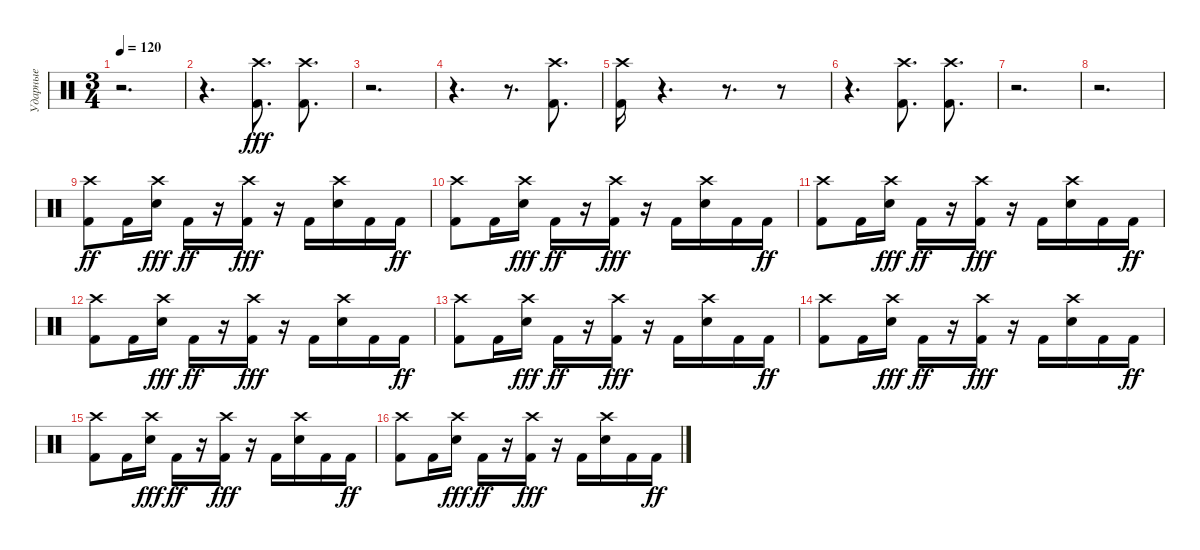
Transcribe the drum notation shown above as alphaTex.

\track ("Ударные" "Ударные") {instrument percussion}
\staff {score}
\articulation defaults
\ts (3 4)
\tempo 120
\clef neutral
\ks c
r.2{d dy fff} |
r.4{d} ("Crash high (hit)" "Kick (hit) 2").8{d} ("Crash high (hit)" "Kick (hit) 2").8{d} |
r.2{d} |
r.4{d} r.8{d} ("Crash high (hit)" "Kick (hit) 2").8{d} |
("Crash high (hit)" "Kick (hit) 2").16 r.4{d} r.8{d} r.8 |
r.4{d} ("Crash high (hit)" "Kick (hit) 2").8{d} ("Crash high (hit)" "Kick (hit) 2").8{d} |
r.2{d} |
r.2{d} |
("Crash high (hit)" "Kick (hit) 2").8{dy ff volume 16 balance 8} "Kick (hit) 2".16 ("Crash high (hit)" "Electric Snare (hit)").16{dy fff} "Kick (hit) 2".16{dy ff} r.16 ("Crash high (hit)" "Kick (hit) 2").16{dy fff} r.16 "Kick (hit) 2".16 ("Crash high (hit)" "Electric Snare (hit)").16 "Kick (hit) 2".16 "Kick (hit) 2".16{dy ff} |
("Crash high (hit)" "Kick (hit) 2").8 "Kick (hit) 2".16 ("Crash high (hit)" "Electric Snare (hit)").16{dy fff} "Kick (hit) 2".16{dy ff} r.16 ("Crash high (hit)" "Kick (hit) 2").16{dy fff} r.16 "Kick (hit) 2".16 ("Crash high (hit)" "Electric Snare (hit)").16 "Kick (hit) 2".16 "Kick (hit) 2".16{dy ff} |
("Crash high (hit)" "Kick (hit) 2").8 "Kick (hit) 2".16 ("Crash high (hit)" "Electric Snare (hit)").16{dy fff} "Kick (hit) 2".16{dy ff} r.16 ("Crash high (hit)" "Kick (hit) 2").16{dy fff} r.16 "Kick (hit) 2".16 ("Crash high (hit)" "Electric Snare (hit)").16 "Kick (hit) 2".16 "Kick (hit) 2".16{dy ff} |
("Crash high (hit)" "Kick (hit) 2").8 "Kick (hit) 2".16 ("Crash high (hit)" "Electric Snare (hit)").16{dy fff} "Kick (hit) 2".16{dy ff} r.16 ("Crash high (hit)" "Kick (hit) 2").16{dy fff} r.16 "Kick (hit) 2".16 ("Crash high (hit)" "Electric Snare (hit)").16 "Kick (hit) 2".16 "Kick (hit) 2".16{dy ff} |
("Crash high (hit)" "Kick (hit) 2").8 "Kick (hit) 2".16 ("Crash high (hit)" "Electric Snare (hit)").16{dy fff} "Kick (hit) 2".16{dy ff} r.16 ("Crash high (hit)" "Kick (hit) 2").16{dy fff} r.16 "Kick (hit) 2".16 ("Crash high (hit)" "Electric Snare (hit)").16 "Kick (hit) 2".16 "Kick (hit) 2".16{dy ff} |
("Crash high (hit)" "Kick (hit) 2").8 "Kick (hit) 2".16 ("Crash high (hit)" "Electric Snare (hit)").16{dy fff} "Kick (hit) 2".16{dy ff} r.16 ("Crash high (hit)" "Kick (hit) 2").16{dy fff} r.16 "Kick (hit) 2".16 ("Crash high (hit)" "Electric Snare (hit)").16 "Kick (hit) 2".16 "Kick (hit) 2".16{dy ff} |
("Crash high (hit)" "Kick (hit) 2").8 "Kick (hit) 2".16 ("Crash high (hit)" "Electric Snare (hit)").16{dy fff} "Kick (hit) 2".16{dy ff} r.16 ("Crash high (hit)" "Kick (hit) 2").16{dy fff} r.16 "Kick (hit) 2".16 ("Crash high (hit)" "Electric Snare (hit)").16 "Kick (hit) 2".16 "Kick (hit) 2".16{dy ff} |
("Crash high (hit)" "Kick (hit) 2").8 "Kick (hit) 2".16 ("Crash high (hit)" "Electric Snare (hit)").16{dy fff} "Kick (hit) 2".16{dy ff} r.16 ("Crash high (hit)" "Kick (hit) 2").16{dy fff} r.16 "Kick (hit) 2".16 ("Crash high (hit)" "Electric Snare (hit)").16 "Kick (hit) 2".16 "Kick (hit) 2".16{dy ff}
